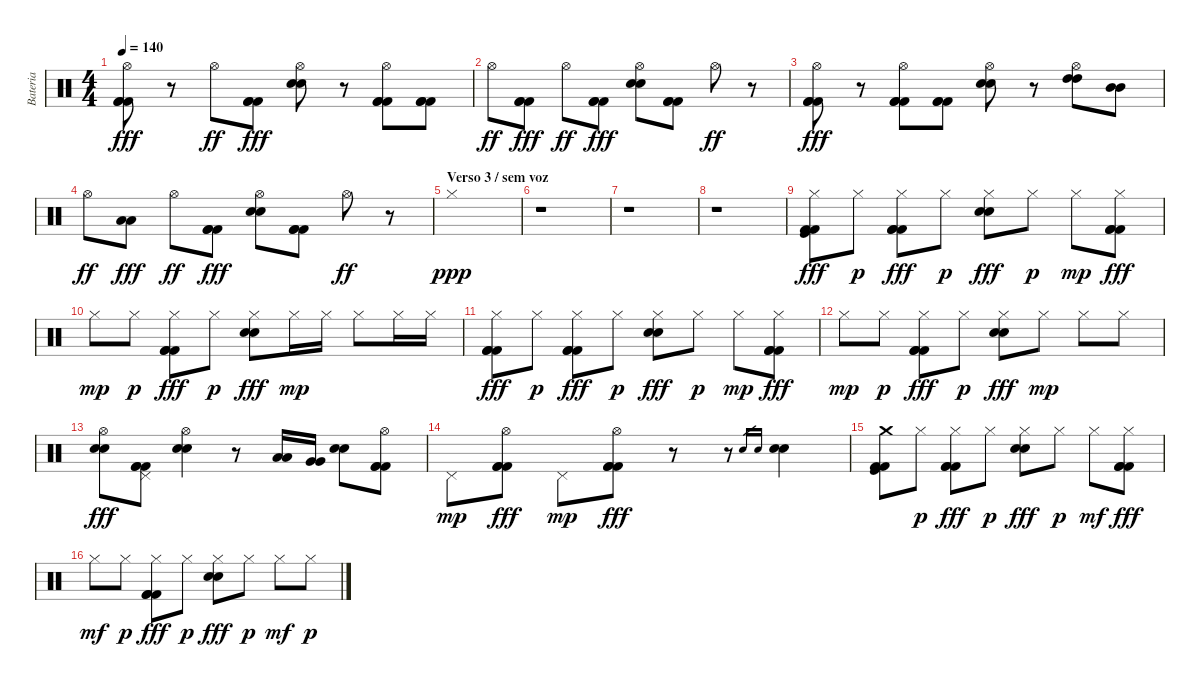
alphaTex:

\track ("Bateria" "Bateria") {instrument percussion}
\staff {score}
\articulation defaults
\ts (4 4)
\tempo 140
\clef neutral
\ks c
("Hi-Hat (open)" "Kick (hit) 2" "Kick (hit) 2" "Kick (hit) 2").8{dy fff} r.8 "Hi-Hat (open)".8{dy ff} ("Kick (hit) 2" "Kick (hit) 2" "Kick (hit) 2").8{dy fff} ("Hi-Hat (open)" "Snare (hit) 2" "Snare (hit) 2").8 r.8 ("Hi-Hat (open)" "Kick (hit) 2" "Kick (hit) 2" "Kick (hit) 2").8 ("Kick (hit) 2" "Kick (hit) 2" "Kick (hit) 2").8 |
"Hi-Hat (open)".8{dy ff} ("Kick (hit) 2" "Kick (hit) 2" "Kick (hit) 2").8{dy fff} "Hi-Hat (open)".8{dy ff} ("Kick (hit) 2" "Kick (hit) 2" "Kick (hit) 2").8{dy fff} ("Hi-Hat (open)" "Snare (hit) 2" "Snare (hit) 2").8 ("Kick (hit) 2" "Kick (hit) 2" "Kick (hit) 2").8 "Hi-Hat (open)".8{dy ff} r.8 |
("Hi-Hat (open)" "Kick (hit) 2" "Kick (hit) 2" "Kick (hit) 2").8{dy fff} r.8 ("Hi-Hat (open)" "Kick (hit) 2" "Kick (hit) 2" "Kick (hit) 2").8 ("Kick (hit) 2" "Kick (hit) 2" "Kick (hit) 2").8 ("Hi-Hat (open)" "Snare (hit) 2" "Snare (hit) 2").8 r.8 ("Hi-Hat (open)" "High Tom (hit)" "High Tom (hit)").8 ("Mid Tom (hit)" "Mid Tom (hit)").8 |
"Hi-Hat (open)".8{dy ff} ("Low Tom (hit)" "Low Tom (hit)").8{dy fff} "Hi-Hat (open)".8{dy ff} ("Kick (hit) 2" "Kick (hit) 2" "Kick (hit) 2").8{dy fff} ("Hi-Hat (open)" "Snare (hit) 2" "Snare (hit) 2").8 ("Kick (hit) 2" "Kick (hit) 2" "Kick (hit) 2").8 "Hi-Hat (open)".8{dy ff} r.8 |
\section ("" "Verso 3 / sem voz")
"Hi-Hat (closed)".1{dy ppp} |
r.1 |
r.1 |
r.1 |
("Hi-Hat (closed)" "Kick (hit) 2" "Kick (hit) 2" "Kick (hit)").8{dy fff} "Hi-Hat (closed)".8{dy p} ("Hi-Hat (closed)" "Kick (hit) 2" "Kick (hit) 2" "Kick (hit) 2").8{dy fff} "Hi-Hat (closed)".8{dy p} ("Hi-Hat (closed)" "Snare (hit) 2" "Snare (hit) 2").8{dy fff} "Hi-Hat (closed)".8{dy p} "Hi-Hat (closed)".8{dy mp} ("Hi-Hat (closed)" "Kick (hit) 2" "Kick (hit) 2" "Kick (hit) 2").8{dy fff} |
"Hi-Hat (closed)".8{dy mp} "Hi-Hat (closed)".8{dy p} ("Hi-Hat (closed)" "Kick (hit) 2" "Kick (hit) 2" "Kick (hit) 2").8{dy fff} "Hi-Hat (closed)".8{dy p} ("Hi-Hat (closed)" "Snare (hit) 2" "Snare (hit) 2").8{dy fff} "Hi-Hat (closed)".16{dy mp} "Hi-Hat (closed)".16 "Hi-Hat (closed)".8 "Hi-Hat (closed)".16 "Hi-Hat (closed)".16 |
("Hi-Hat (closed)" "Kick (hit) 2" "Kick (hit) 2" "Kick (hit) 2").8{dy fff} "Hi-Hat (closed)".8{dy p} ("Hi-Hat (closed)" "Kick (hit) 2" "Kick (hit) 2" "Kick (hit) 2").8{dy fff} "Hi-Hat (closed)".8{dy p} ("Hi-Hat (closed)" "Snare (hit) 2" "Snare (hit) 2").8{dy fff} "Hi-Hat (closed)".8{dy p} "Hi-Hat (closed)".8{dy mp} ("Hi-Hat (closed)" "Kick (hit) 2" "Kick (hit) 2" "Kick (hit) 2").8{dy fff} |
"Hi-Hat (closed)".8{dy mp} "Hi-Hat (closed)".8{dy p} ("Hi-Hat (closed)" "Kick (hit) 2" "Kick (hit) 2" "Kick (hit) 2").8{dy fff} "Hi-Hat (closed)".8{dy p} ("Hi-Hat (closed)" "Snare (hit) 2" "Snare (hit) 2").8{dy fff} "Hi-Hat (closed)".8{dy mp} "Hi-Hat (closed)".8 "Hi-Hat (closed)".8 |
("Hi-Hat (open)" "Snare (hit) 2" "Snare (hit) 2").8{dy fff} ("Pedal Hi-Hat (hit)" "Kick (hit) 2" "Kick (hit) 2" "Kick (hit) 2").8 ("Hi-Hat (open)" "Snare (hit) 2" "Snare (hit) 2").4 r.8 ("Low Tom (hit)" "Low Tom (hit)").16 ("Very Low Tom (hit)" "Very Low Tom (hit)").16 ("Snare (hit) 2" "Snare (hit) 2").8 ("Hi-Hat (open)" "Kick (hit) 2" "Kick (hit) 2" "Kick (hit) 2").8 |
"Pedal Hi-Hat (hit)".8{dy mp} ("Hi-Hat (open)" "Kick (hit) 2" "Kick (hit) 2" "Kick (hit) 2").8{dy fff} "Pedal Hi-Hat (hit)".8{dy mp} ("Hi-Hat (open)" "Kick (hit) 2" "Kick (hit) 2" "Kick (hit) 2").8{dy fff} r.8 r.8 "Snare (hit) 2".16{gr} "Snare (hit) 2".16{gr} ("Snare (hit) 2" "Snare (hit) 2").4 |
("Crash medium (hit)" "Kick (hit) 2" "Kick (hit) 2" "Kick (hit)").8 "Hi-Hat (closed)".8{dy p} ("Hi-Hat (closed)" "Kick (hit) 2" "Kick (hit) 2" "Kick (hit) 2").8{dy fff} "Hi-Hat (closed)".8{dy p} ("Hi-Hat (closed)" "Snare (hit) 2" "Snare (hit) 2").8{dy fff} "Hi-Hat (closed)".8{dy p} "Hi-Hat (closed)".8{dy mf} ("Hi-Hat (closed)" "Kick (hit) 2" "Kick (hit) 2" "Kick (hit) 2").8{dy fff} |
"Hi-Hat (closed)".8{dy mf} "Hi-Hat (closed)".8{dy p} ("Hi-Hat (closed)" "Kick (hit) 2" "Kick (hit) 2" "Kick (hit) 2").8{dy fff} "Hi-Hat (closed)".8{dy p} ("Hi-Hat (closed)" "Snare (hit) 2" "Snare (hit) 2").8{dy fff} "Hi-Hat (closed)".8{dy p} "Hi-Hat (closed)".8{dy mf} "Hi-Hat (closed)".8{dy p}
